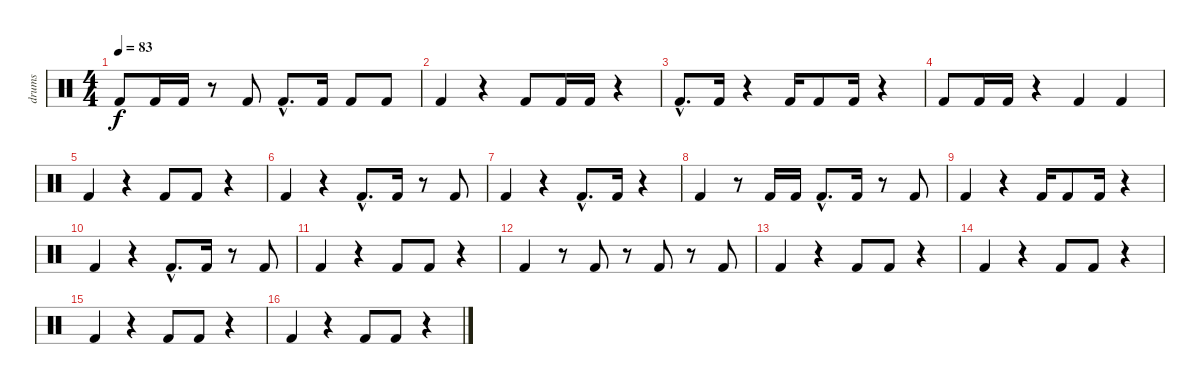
\track ("drums" "drums") {instrument percussion}
\staff {score}
\articulation defaults
\ts (4 4)
\tempo 83
\clef neutral
\ks c "Kick (hit) 2".8{dy f} "Kick (hit) 2".16 "Kick (hit) 2".16
r.8 "Kick (hit) 2".8 "Kick (hit) 2"{hac}.8{d} "Kick (hit) 2".16 "Kick (hit) 2".8 "Kick (hit) 2".8 |
"Kick (hit) 2".4 r.4 "Kick (hit) 2".8 "Kick (hit) 2".16 "Kick (hit) 2".16 r.4 |
"Kick (hit) 2"{hac}.8{d} "Kick (hit) 2".16 r.4 "Kick (hit) 2".16 "Kick (hit) 2".8 "Kick (hit) 2".16 r.4 |
"Kick (hit) 2".8 "Kick (hit) 2".16 "Kick (hit) 2".16 r.4 "Kick (hit) 2".4 "Kick (hit) 2".4 |
"Kick (hit) 2".4 r.4 "Kick (hit) 2".8 "Kick (hit) 2".8 r.4 |
"Kick (hit) 2".4 r.4 "Kick (hit) 2"{hac}.8{d} "Kick (hit) 2".16 r.8 "Kick (hit) 2".8 |
"Kick (hit) 2".4 r.4 "Kick (hit) 2"{hac}.8{d} "Kick (hit) 2".16 r.4 |
"Kick (hit) 2".4 r.8 "Kick (hit) 2".16 "Kick (hit) 2".16 "Kick (hit) 2"{hac}.8{d} "Kick (hit) 2".16 r.8 "Kick (hit) 2".8 |
"Kick (hit) 2".4 r.4 "Kick (hit) 2".16 "Kick (hit) 2".8 "Kick (hit) 2".16 r.4 |
"Kick (hit) 2".4 r.4 "Kick (hit) 2"{hac}.8{d} "Kick (hit) 2".16 r.8 "Kick (hit) 2".8 |
"Kick (hit) 2".4 r.4 "Kick (hit) 2".8 "Kick (hit) 2".8 r.4 |
"Kick (hit) 2".4 r.8 "Kick (hit) 2".8 r.8 "Kick (hit) 2".8 r.8 "Kick (hit) 2".8 |
"Kick (hit) 2".4 r.4 "Kick (hit) 2".8 "Kick (hit) 2".8 r.4 |
"Kick (hit) 2".4 r.4 "Kick (hit) 2".8 "Kick (hit) 2".8 r.4 |
"Kick (hit) 2".4 r.4 "Kick (hit) 2".8 "Kick (hit) 2".8 r.4 |
"Kick (hit) 2".4 r.4 "Kick (hit) 2".8 "Kick (hit) 2".8 r.4
